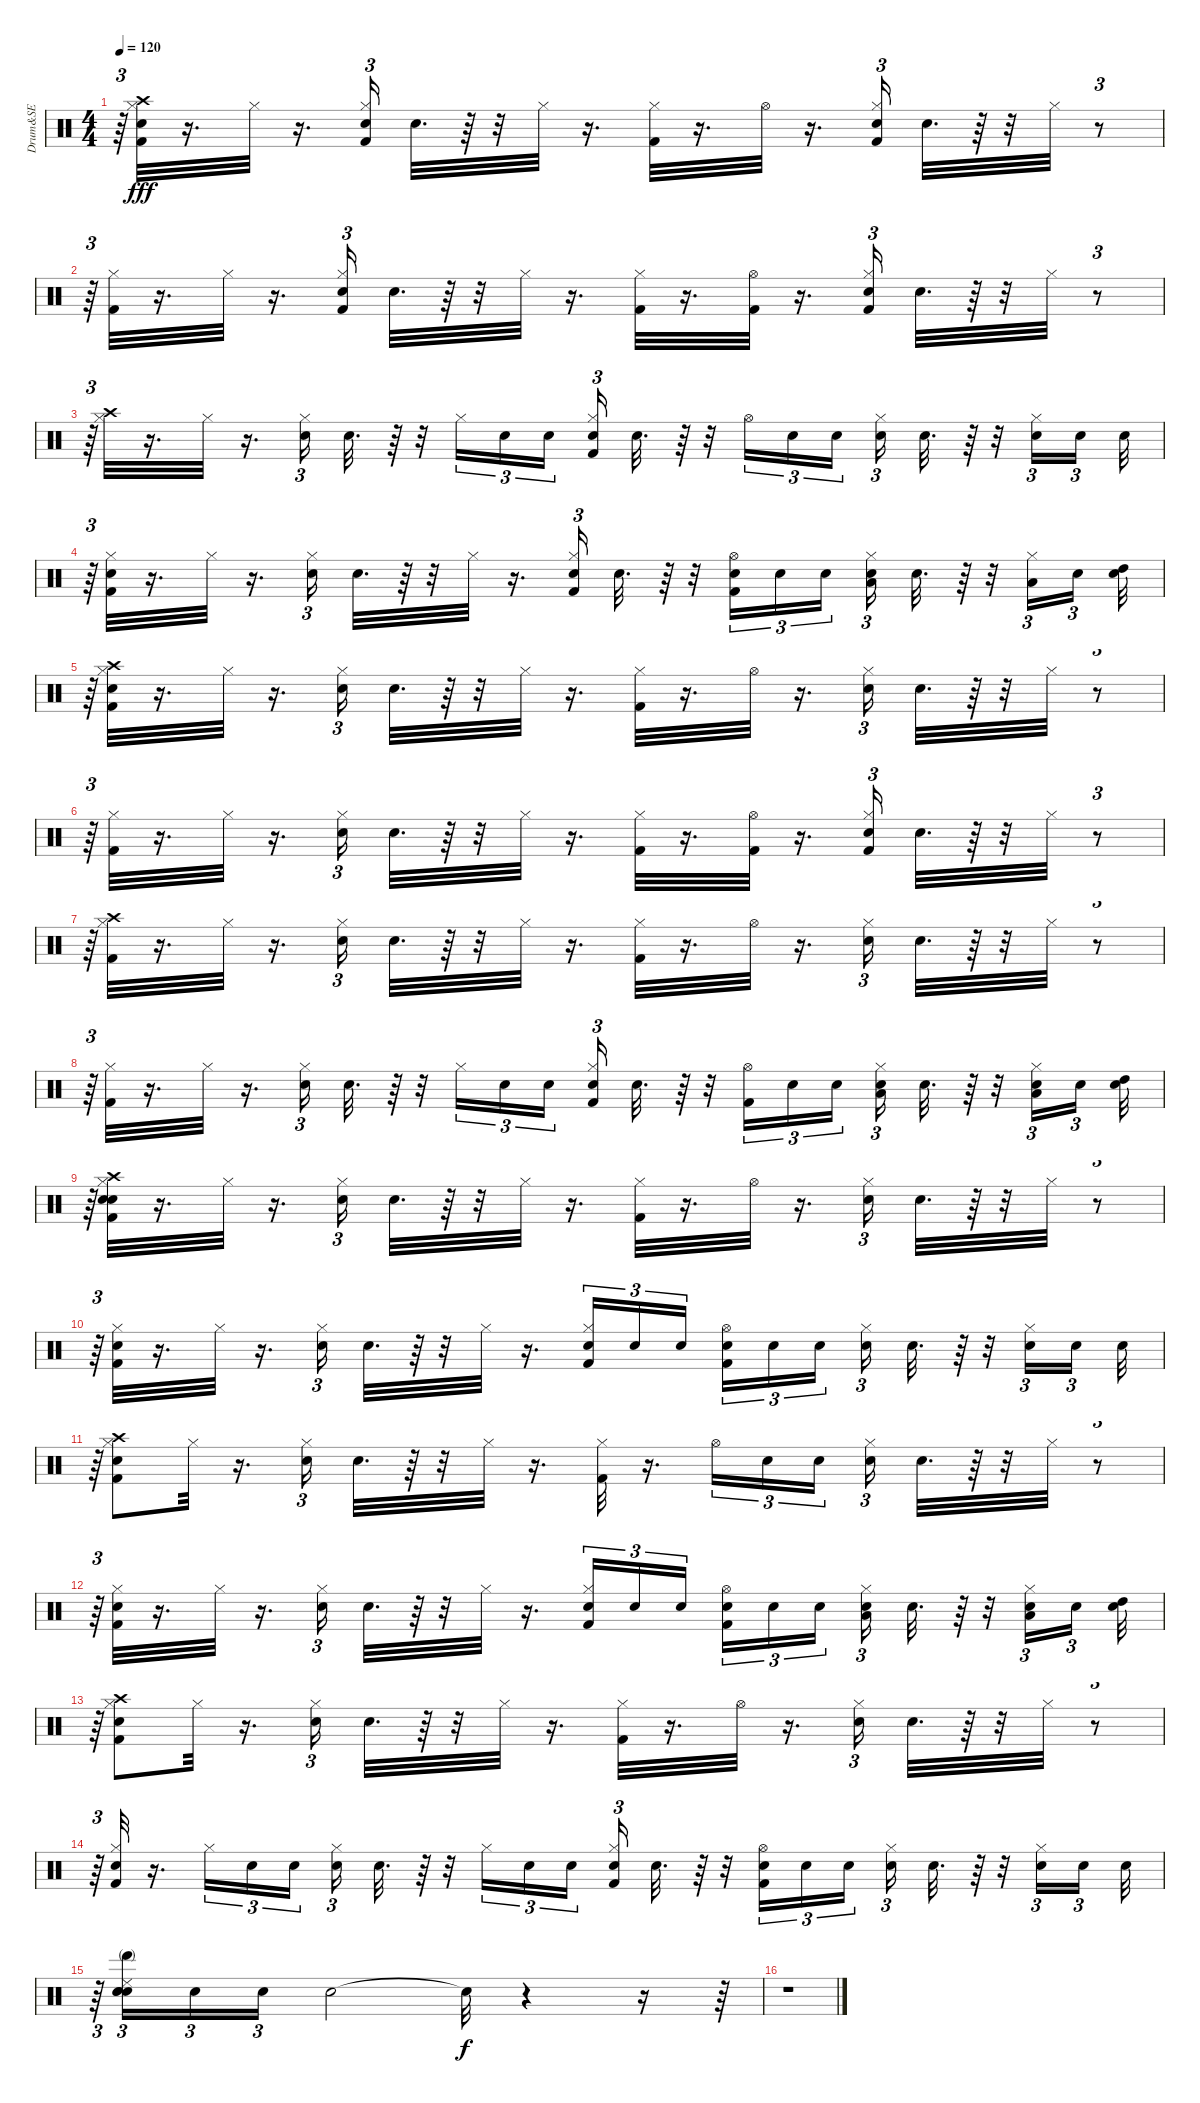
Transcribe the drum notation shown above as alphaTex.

\track ("Drum&SE" "Drum&SE") {instrument percussion}
\staff {score}
\articulation defaults
\ts (4 4)
\tempo 120
\clef neutral
\ks c
r.64{tu (3 2) dy fff} ("Kick (hit) 2" "Hi-Hat (closed)" "Snare (hit) 2" "Crash high (hit)").32 r.16{d} "Hi-Hat (closed)".32 r.16{d} ("Kick (hit) 2" "Snare (hit) 2" "Hi-Hat (closed)").16{tu (3 2)} "Snare (hit) 2".32{d} r.64 r.32 "Hi-Hat (closed)".32 r.16{d} ("Kick (hit) 2" "Hi-Hat (closed)").32 r.16{d} "Hi-Hat (open)".32 r.16{d} ("Kick (hit) 2" "Snare (hit) 2" "Hi-Hat (closed)").16{tu (3 2)} "Snare (hit) 2".32{d} r.64 r.32 "Hi-Hat (closed)".32 r.8{tu (3 2)} |
r.64{tu (3 2)} ("Kick (hit) 2" "Hi-Hat (closed)").32 r.16{d} "Hi-Hat (closed)".32 r.16{d} ("Kick (hit) 2" "Snare (hit) 2" "Hi-Hat (closed)").16{tu (3 2)} "Snare (hit) 2".32{d} r.64 r.32 "Hi-Hat (closed)".32 r.16{d} ("Kick (hit) 2" "Hi-Hat (closed)").32 r.16{d} ("Kick (hit) 2" "Hi-Hat (open)").32 r.16{d} ("Kick (hit) 2" "Snare (hit) 2" "Hi-Hat (closed)").16{tu (3 2)} "Snare (hit) 2".32{d} r.64 r.32 "Hi-Hat (closed)".32 r.8{tu (3 2)} |
r.64{tu (3 2)} ("Hi-Hat (closed)" "Crash high (hit)").32 r.16{d} "Hi-Hat (closed)".32 r.16{d} ("Snare (hit) 2" "Hi-Hat (closed)").16{tu (3 2)} "Snare (hit) 2".32{d} r.64 r.32 "Hi-Hat (closed)".16{tu (3 2)} "Snare (hit) 2".16{tu (3 2)} "Snare (hit) 2".16{tu (3 2)} ("Kick (hit) 2" "Snare (hit) 2" "Hi-Hat (closed)").16{tu (3 2)} "Snare (hit) 2".32{d} r.64 r.32 "Hi-Hat (open)".16{tu (3 2)} "Snare (hit) 2".16{tu (3 2)} "Snare (hit) 2".16{tu (3 2)} ("Snare (hit) 2" "Hi-Hat (closed)").16{tu (3 2)} "Snare (hit) 2".32{d} r.64 r.32 ("Snare (hit) 2" "Hi-Hat (closed)").16{tu (3 2)} "Snare (hit) 2".16{tu (3 2)} "Snare (hit) 2".32 |
r.64{tu (3 2)} ("Snare (hit) 2" "Kick (hit) 2" "Hi-Hat (closed)").32 r.16{d} "Hi-Hat (closed)".32 r.16{d} ("Snare (hit) 2" "Hi-Hat (closed)").16{tu (3 2)} "Snare (hit) 2".32{d} r.64 r.32 "Hi-Hat (closed)".32 r.16{d} ("Kick (hit) 2" "Snare (hit) 2" "Hi-Hat (closed)").16{tu (3 2)} "Snare (hit) 2".32{d} r.64 r.32 ("Kick (hit) 2" "Snare (hit) 2" "Hi-Hat (open)").16{tu (3 2)} "Snare (hit) 2".16{tu (3 2)} "Snare (hit) 2".16{tu (3 2)} ("Snare (hit) 2" "Low Floor Tom (hit)" "Hi-Hat (closed)").16{tu (3 2)} "Snare (hit) 2".32{d} r.64 r.32 ("Hi-Hat (closed)" "Low Tom (hit)").16{tu (3 2)} "Snare (hit) 2".16{tu (3 2)} ("Snare (hit) 2" "High Tom (hit)").32 |
r.64{tu (3 2)} ("Kick (hit) 2" "Snare (hit) 2" "Hi-Hat (closed)" "Crash high (hit)").32 r.16{d} "Hi-Hat (closed)".32 r.16{d} ("Snare (hit) 2" "Hi-Hat (closed)").16{tu (3 2)} "Snare (hit) 2".32{d} r.64 r.32 "Hi-Hat (closed)".32 r.16{d} ("Kick (hit) 2" "Hi-Hat (closed)").32 r.16{d} "Hi-Hat (open)".32 r.16{d} ("Snare (hit) 2" "Hi-Hat (closed)").16{tu (3 2)} "Snare (hit) 2".32{d} r.64 r.32 "Hi-Hat (closed)".32 r.8{tu (3 2)} |
r.64{tu (3 2)} ("Kick (hit) 2" "Hi-Hat (closed)").32 r.16{d} "Hi-Hat (closed)".32 r.16{d} ("Snare (hit) 2" "Hi-Hat (closed)").16{tu (3 2)} "Snare (hit) 2".32{d} r.64 r.32 "Hi-Hat (closed)".32 r.16{d} ("Kick (hit) 2" "Hi-Hat (closed)").32 r.16{d} ("Kick (hit) 2" "Hi-Hat (open)").32 r.16{d} ("Kick (hit) 2" "Snare (hit) 2" "Hi-Hat (closed)").16{tu (3 2)} "Snare (hit) 2".32{d} r.64 r.32 "Hi-Hat (closed)".32 r.8{tu (3 2)} |
r.64{tu (3 2)} ("Kick (hit) 2" "Hi-Hat (closed)" "Crash high (hit)").32 r.16{d} "Hi-Hat (closed)".32 r.16{d} ("Snare (hit) 2" "Hi-Hat (closed)").16{tu (3 2)} "Snare (hit) 2".32{d} r.64 r.32 "Hi-Hat (closed)".32 r.16{d} ("Kick (hit) 2" "Hi-Hat (closed)").32 r.16{d} "Hi-Hat (open)".32 r.16{d} ("Snare (hit) 2" "Hi-Hat (closed)").16{tu (3 2)} "Snare (hit) 2".32{d} r.64 r.32 "Hi-Hat (closed)".32 r.8{tu (3 2)} |
r.64{tu (3 2)} ("Kick (hit) 2" "Hi-Hat (closed)").32 r.16{d} "Hi-Hat (closed)".32 r.16{d} ("Snare (hit) 2" "Hi-Hat (closed)").16{tu (3 2)} "Snare (hit) 2".32{d} r.64 r.32 "Hi-Hat (closed)".16{tu (3 2)} "Snare (hit) 2".16{tu (3 2)} "Snare (hit) 2".16{tu (3 2)} ("Kick (hit) 2" "Snare (hit) 2" "Hi-Hat (closed)").16{tu (3 2)} "Snare (hit) 2".32{d} r.64 r.32 ("Kick (hit) 2" "Hi-Hat (open)").16{tu (3 2)} "Snare (hit) 2".16{tu (3 2)} "Snare (hit) 2".16{tu (3 2)} ("Snare (hit) 2" "Low Floor Tom (hit)" "Hi-Hat (closed)").16{tu (3 2)} "Snare (hit) 2".32{d} r.64 r.32 ("Hi-Hat (closed)" "Snare (hit) 2" "Low Tom (hit)").16{tu (3 2)} "Snare (hit) 2".16{tu (3 2)} ("Snare (hit) 2" "High Tom (hit)").32 |
r.64{tu (3 2)} ("Snare (hit) 2" "Kick (hit) 2" "Hand Clap (hit)" "Hi-Hat (closed)" "Crash high (hit)").32 r.16{d} "Hi-Hat (closed)".32 r.16{d} ("Snare (hit) 2" "Hi-Hat (closed)").16{tu (3 2)} "Snare (hit) 2".32{d} r.64 r.32 "Hi-Hat (closed)".32 r.16{d} ("Kick (hit) 2" "Hi-Hat (closed)").32 r.16{d} "Hi-Hat (open)".32 r.16{d} ("Snare (hit) 2" "Hi-Hat (closed)").16{tu (3 2)} "Snare (hit) 2".32{d} r.64 r.32 "Hi-Hat (closed)".32 r.8{tu (3 2)} |
r.64{tu (3 2)} ("Kick (hit) 2" "Snare (hit) 2" "Hi-Hat (closed)").32 r.16{d} "Hi-Hat (closed)".32 r.16{d} ("Snare (hit) 2" "Hi-Hat (closed)").16{tu (3 2)} "Snare (hit) 2".32{d} r.64 r.32 "Hi-Hat (closed)".32 r.16{d} ("Kick (hit) 2" "Snare (hit) 2" "Hi-Hat (closed)").16{tu (3 2)} "Snare (hit) 2".16{tu (3 2)} "Snare (hit) 2".16{tu (3 2)} ("Kick (hit) 2" "Snare (hit) 2" "Hi-Hat (open)").16{tu (3 2)} "Snare (hit) 2".16{tu (3 2)} "Snare (hit) 2".16{tu (3 2)} ("Snare (hit) 2" "Hi-Hat (closed)").16{tu (3 2)} "Snare (hit) 2".32{d} r.64 r.32 ("Snare (hit) 2" "Hi-Hat (closed)").16{tu (3 2)} "Snare (hit) 2".16{tu (3 2)} "Snare (hit) 2".32 |
r.64{tu (3 2)} ("Kick (hit) 2" "Hi-Hat (closed)" "Snare (hit) 2" "Crash high (hit)").8 "Hi-Hat (closed)".32 r.16{d} ("Snare (hit) 2" "Hi-Hat (closed)").16{tu (3 2)} "Snare (hit) 2".32{d} r.64 r.32 "Hi-Hat (closed)".32 r.16{d} ("Kick (hit) 2" "Hi-Hat (closed)").32 r.16{d} "Hi-Hat (open)".16{tu (3 2)} "Snare (hit) 2".16{tu (3 2)} "Snare (hit) 2".16{tu (3 2)} ("Snare (hit) 2" "Hi-Hat (closed)").16{tu (3 2)} "Snare (hit) 2".32{d} r.64 r.32 "Hi-Hat (closed)".32 r.8{tu (3 2)} |
r.64{tu (3 2)} ("Kick (hit) 2" "Snare (hit) 2" "Hi-Hat (closed)").32 r.16{d} "Hi-Hat (closed)".32 r.16{d} ("Snare (hit) 2" "Hi-Hat (closed)").16{tu (3 2)} "Snare (hit) 2".32{d} r.64 r.32 "Hi-Hat (closed)".32 r.16{d} ("Kick (hit) 2" "Snare (hit) 2" "Hi-Hat (closed)").16{tu (3 2)} "Snare (hit) 2".16{tu (3 2)} "Snare (hit) 2".16{tu (3 2)} ("Kick (hit) 2" "Snare (hit) 2" "Hi-Hat (open)").16{tu (3 2)} "Snare (hit) 2".16{tu (3 2)} "Snare (hit) 2".16{tu (3 2)} ("Snare (hit) 2" "Low Floor Tom (hit)" "Hi-Hat (closed)").16{tu (3 2)} "Snare (hit) 2".32{d} r.64 r.32 ("Hi-Hat (closed)" "Snare (hit) 2" "Low Tom (hit)").16{tu (3 2)} "Snare (hit) 2".16{tu (3 2)} ("Snare (hit) 2" "High Tom (hit)").32 |
r.64{tu (3 2)} ("Kick (hit) 2" "Hi-Hat (closed)" "Snare (hit) 2" "Crash high (hit)").8 "Hi-Hat (closed)".32 r.16{d} ("Snare (hit) 2" "Hi-Hat (closed)").16{tu (3 2)} "Snare (hit) 2".32{d} r.64 r.32 "Hi-Hat (closed)".32 r.16{d} ("Kick (hit) 2" "Hi-Hat (closed)").32 r.16{d} "Hi-Hat (open)".32 r.16{d} ("Snare (hit) 2" "Hi-Hat (closed)").16{tu (3 2)} "Snare (hit) 2".32{d} r.64 r.32 "Hi-Hat (closed)".32 r.8{tu (3 2)} |
r.64{tu (3 2)} ("Kick (hit) 2" "Snare (hit) 2" "Hi-Hat (closed)").32 r.16{d} "Hi-Hat (closed)".16{tu (3 2)} "Snare (hit) 2".16{tu (3 2)} "Snare (hit) 2".16{tu (3 2)} ("Snare (hit) 2" "Hi-Hat (closed)").16{tu (3 2)} "Snare (hit) 2".32{d} r.64 r.32 "Hi-Hat (closed)".16{tu (3 2)} "Snare (hit) 2".16{tu (3 2)} "Snare (hit) 2".16{tu (3 2)} ("Kick (hit) 2" "Snare (hit) 2" "Hi-Hat (closed)").16{tu (3 2)} "Snare (hit) 2".32{d} r.64 r.32 ("Kick (hit) 2" "Snare (hit) 2" "Hi-Hat (open)").16{tu (3 2)} "Snare (hit) 2".16{tu (3 2)} "Snare (hit) 2".16{tu (3 2)} ("Snare (hit) 2" "Hi-Hat (closed)").16{tu (3 2)} "Snare (hit) 2".32{d} r.64 r.32 ("Snare (hit) 2" "Hi-Hat (closed)").16{tu (3 2)} "Snare (hit) 2".16{tu (3 2)} "Snare (hit) 2".32 |
r.64{tu (3 2)} ("Snare (hit) 2" "Cowbell low (tip)" "Hand Clap (hit)" "Snare (hit)" "Hand (mute)").16{tu (3 2)} "Snare (hit) 2".16{tu (3 2)} "Snare (hit) 2".16{tu (3 2)} "Snare (hit) 2".2 "Snare (hit)"{t}.32{dy f} r.4 r.16 r.64 |
r.1
